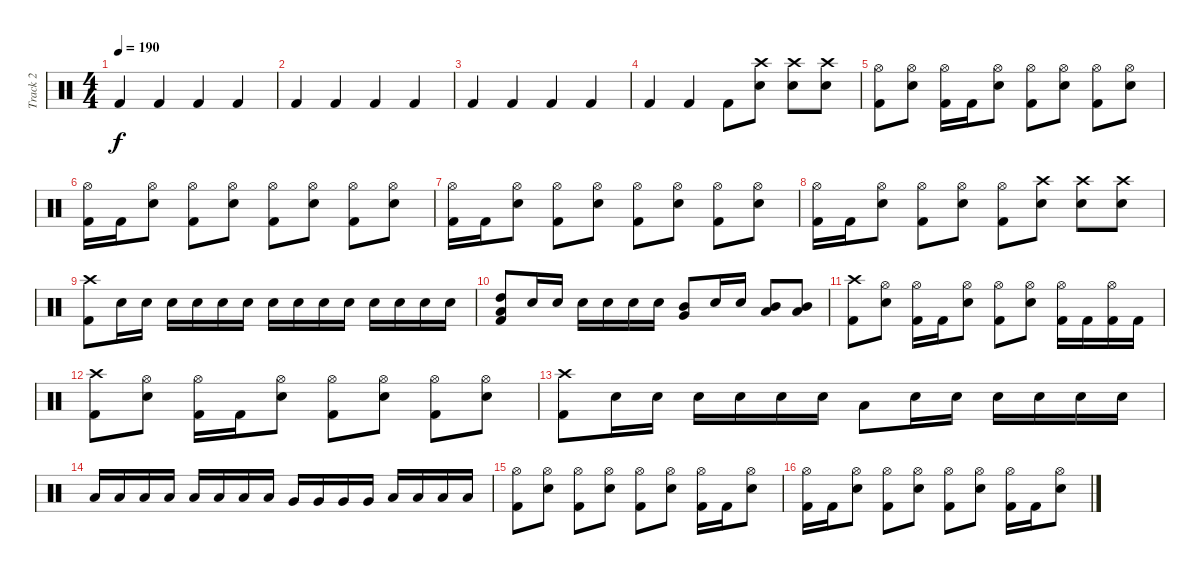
\track ("Track 2" "Track 2") {instrument percussion}
\staff {score}
\articulation defaults
\ts (4 4)
\tempo 190
\clef neutral
\ks c "Kick (hit) 2".4{dy f} "Kick (hit) 2".4 "Kick (hit) 2".4 "Kick (hit) 2".4
|
"Kick (hit) 2".4 "Kick (hit) 2".4 "Kick (hit) 2".4 "Kick (hit) 2".4 |
"Kick (hit) 2".4 "Kick (hit) 2".4 "Kick (hit) 2".4 "Kick (hit) 2".4 |
"Kick (hit) 2".4 "Kick (hit) 2".4 "Kick (hit) 2".8 ("Crash high (hit)" "Snare (hit) 2").8 ("Crash high (hit)" "Snare (hit) 2").8 ("Crash high (hit)" "Snare (hit) 2").8 |
("Hi-Hat (open)" "Kick (hit) 2").8 ("Hi-Hat (open)" "Snare (hit) 2").8 ("Hi-Hat (open)" "Kick (hit) 2").16 "Kick (hit) 2".16 ("Hi-Hat (open)" "Snare (hit) 2").8 ("Hi-Hat (open)" "Kick (hit) 2").8 ("Hi-Hat (open)" "Snare (hit) 2").8 ("Hi-Hat (open)" "Kick (hit) 2").8 ("Hi-Hat (open)" "Snare (hit) 2").8 |
("Hi-Hat (open)" "Kick (hit) 2").16 "Kick (hit) 2".16 ("Hi-Hat (open)" "Snare (hit) 2").8 ("Hi-Hat (open)" "Kick (hit) 2").8 ("Hi-Hat (open)" "Snare (hit) 2").8 ("Hi-Hat (open)" "Kick (hit) 2").8 ("Hi-Hat (open)" "Snare (hit) 2").8 ("Hi-Hat (open)" "Kick (hit) 2").8 ("Hi-Hat (open)" "Snare (hit) 2").8 |
("Hi-Hat (open)" "Kick (hit) 2").16 "Kick (hit) 2".16 ("Hi-Hat (open)" "Snare (hit) 2").8 ("Hi-Hat (open)" "Kick (hit) 2").8 ("Hi-Hat (open)" "Snare (hit) 2").8 ("Hi-Hat (open)" "Kick (hit) 2").8 ("Hi-Hat (open)" "Snare (hit) 2").8 ("Hi-Hat (open)" "Kick (hit) 2").8 ("Hi-Hat (open)" "Snare (hit) 2").8 |
("Hi-Hat (open)" "Kick (hit) 2").16 "Kick (hit) 2".16 ("Hi-Hat (open)" "Snare (hit) 2").8 ("Hi-Hat (open)" "Kick (hit) 2").8 ("Hi-Hat (open)" "Snare (hit) 2").8 ("Hi-Hat (open)" "Kick (hit) 2").8 ("Crash high (hit)" "Snare (hit) 2").8 ("Crash high (hit)" "Snare (hit) 2").8 ("Crash high (hit)" "Snare (hit) 2").8 |
("Crash high (hit)" "Kick (hit) 2").8 "Snare (hit) 2".16 "Snare (hit) 2".16 "Snare (hit) 2".16 "Snare (hit) 2".16 "Snare (hit) 2".16 "Snare (hit) 2".16 "Snare (hit) 2".16 "Snare (hit) 2".16 "Snare (hit) 2".16 "Snare (hit) 2".16 "Snare (hit) 2".16 "Snare (hit) 2".16 "Snare (hit) 2".16 "Snare (hit) 2".16 |
("High Tom (hit)" "Low Tom (hit)" "Kick (hit) 2").8 "Snare (hit) 2".16 "Snare (hit) 2".16 "Snare (hit) 2".16 "Snare (hit) 2".16 "Snare (hit) 2".16 "Snare (hit) 2".16 ("Mid Tom (hit)" "Very Low Tom (hit)").8 "Snare (hit) 2".16 "Snare (hit) 2".16 ("Low Tom (hit)" "Mid Tom (hit)").8 ("Low Tom (hit)" "Mid Tom (hit)").8 |
("Crash high (hit)" "Kick (hit) 2").8 ("Hi-Hat (open)" "Snare (hit) 2").8 ("Hi-Hat (open)" "Kick (hit) 2").16 "Kick (hit) 2".16 ("Hi-Hat (open)" "Snare (hit) 2").8 ("Hi-Hat (open)" "Kick (hit) 2").8 ("Hi-Hat (open)" "Snare (hit) 2").8 ("Hi-Hat (open)" "Kick (hit) 2").16 "Kick (hit) 2".16 ("Hi-Hat (open)" "Kick (hit) 2").16 "Kick (hit) 2".16 |
("Crash high (hit)" "Kick (hit) 2").8 ("Hi-Hat (open)" "Snare (hit) 2").8 ("Hi-Hat (open)" "Kick (hit) 2").16 "Kick (hit) 2".16 ("Hi-Hat (open)" "Snare (hit) 2").8 ("Hi-Hat (open)" "Kick (hit) 2").8 ("Hi-Hat (open)" "Snare (hit) 2").8 ("Hi-Hat (open)" "Kick (hit) 2").8 ("Hi-Hat (open)" "Snare (hit) 2").8 |
("Crash high (hit)" "Kick (hit) 2").8 "Snare (hit) 2".16 "Snare (hit) 2".16 "Snare (hit) 2".16 "Snare (hit) 2".16 "Snare (hit) 2".16 "Snare (hit) 2".16 "Low Tom (hit)".8 "Snare (hit) 2".16 "Snare (hit) 2".16 "Snare (hit) 2".16 "Snare (hit) 2".16 "Snare (hit) 2".16 "Snare (hit) 2".16 |
"Low Tom (hit)".16 "Low Tom (hit)".16 "Low Tom (hit)".16 "Low Tom (hit)".16 "Low Tom (hit)".16 "Low Tom (hit)".16 "Low Tom (hit)".16 "Low Tom (hit)".16 "Very Low Tom (hit)".16 "Very Low Tom (hit)".16 "Very Low Tom (hit)".16 "Very Low Tom (hit)".16 "Low Floor Tom (hit)".16 "Low Floor Tom (hit)".16 "Low Floor Tom (hit)".16 "Low Floor Tom (hit)".16 |
("Hi-Hat (open)" "Kick (hit) 2").8 ("Hi-Hat (open)" "Snare (hit) 2").8 ("Hi-Hat (open)" "Kick (hit) 2").8 ("Hi-Hat (open)" "Snare (hit) 2").8 ("Hi-Hat (open)" "Kick (hit) 2").8 ("Hi-Hat (open)" "Snare (hit) 2").8 ("Hi-Hat (open)" "Kick (hit) 2").16 "Kick (hit) 2".16 ("Hi-Hat (open)" "Snare (hit) 2").8 |
("Hi-Hat (open)" "Kick (hit) 2").16 "Kick (hit) 2".16 ("Hi-Hat (open)" "Snare (hit) 2").8 ("Hi-Hat (open)" "Kick (hit) 2").8 ("Hi-Hat (open)" "Snare (hit) 2").8 ("Hi-Hat (open)" "Kick (hit) 2").8 ("Hi-Hat (open)" "Snare (hit) 2").8 ("Hi-Hat (open)" "Kick (hit) 2").16 "Kick (hit) 2".16 ("Hi-Hat (open)" "Snare (hit) 2").8
